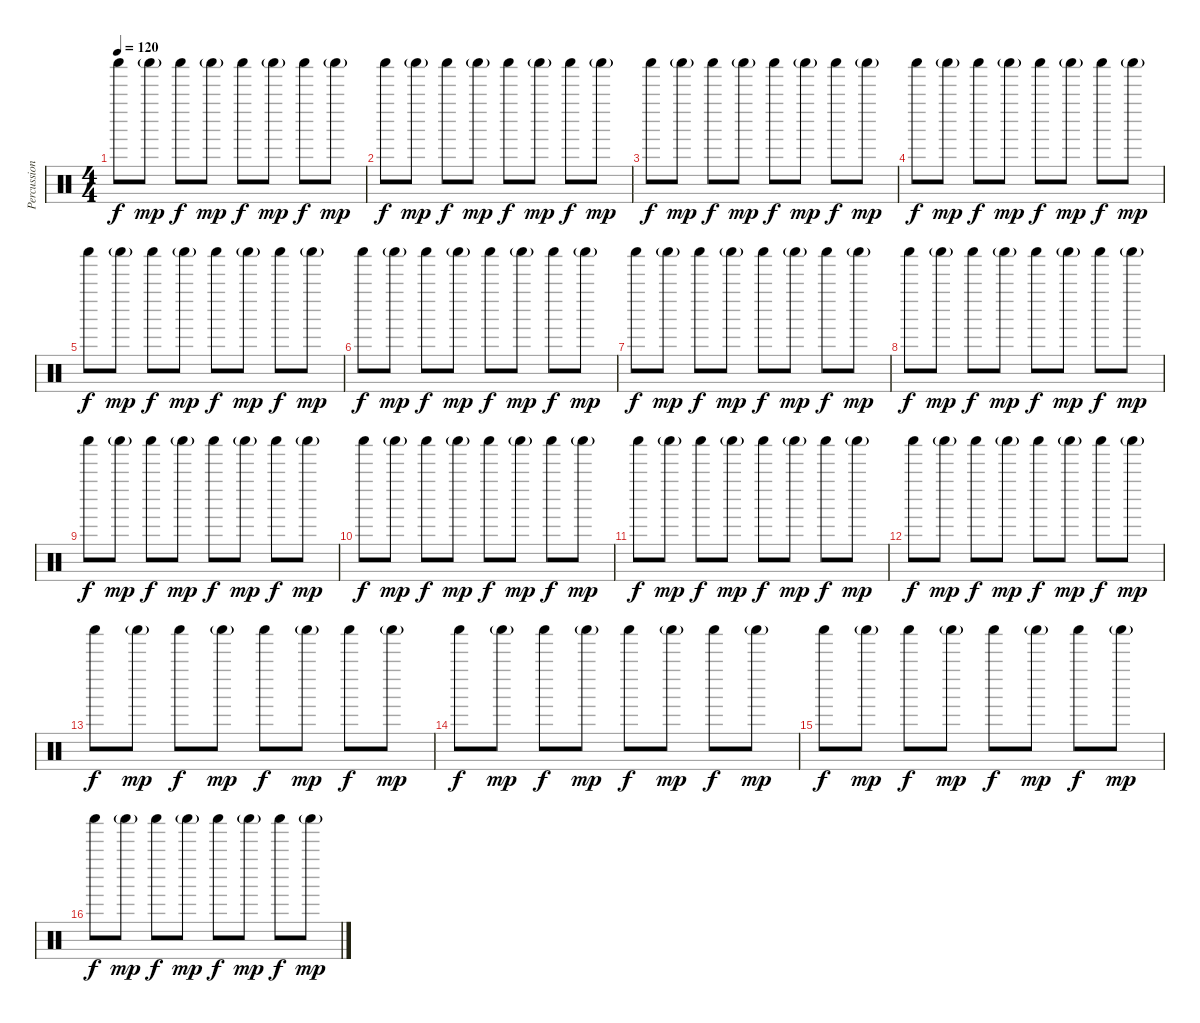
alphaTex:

\track ("Percussion" "Percussion") {instrument percussion}
\staff {score}
\articulation defaults
\ts (4 4)
\tempo 120
\clef neutral
\ks c "Shaker (hit)".8{dy f balance 16} "Shaker (hit)"{g}.8{dy mp} "Shaker (hit)".8{dy f balance 0} "Shaker (hit)"{g}.8{dy mp} "Shaker (hit)".8{dy f balance 16} "Shaker (hit)"{g}.8{dy mp} "Shaker (hit)".8{dy f balance 0} "Shaker (hit)"{g}.8{dy mp}
|
"Shaker (hit)".8{dy f balance 16} "Shaker (hit)"{g}.8{dy mp} "Shaker (hit)".8{dy f balance 0} "Shaker (hit)"{g}.8{dy mp} "Shaker (hit)".8{dy f balance 16} "Shaker (hit)"{g}.8{dy mp} "Shaker (hit)".8{dy f balance 0} "Shaker (hit)"{g}.8{dy mp} |
"Shaker (hit)".8{dy f balance 16} "Shaker (hit)"{g}.8{dy mp} "Shaker (hit)".8{dy f balance 0} "Shaker (hit)"{g}.8{dy mp} "Shaker (hit)".8{dy f balance 16} "Shaker (hit)"{g}.8{dy mp} "Shaker (hit)".8{dy f balance 0} "Shaker (hit)"{g}.8{dy mp} |
"Shaker (hit)".8{dy f balance 16} "Shaker (hit)"{g}.8{dy mp} "Shaker (hit)".8{dy f balance 0} "Shaker (hit)"{g}.8{dy mp} "Shaker (hit)".8{dy f balance 16} "Shaker (hit)"{g}.8{dy mp} "Shaker (hit)".8{dy f balance 0} "Shaker (hit)"{g}.8{dy mp} |
"Shaker (hit)".8{dy f balance 16} "Shaker (hit)"{g}.8{dy mp} "Shaker (hit)".8{dy f balance 0} "Shaker (hit)"{g}.8{dy mp} "Shaker (hit)".8{dy f balance 16} "Shaker (hit)"{g}.8{dy mp} "Shaker (hit)".8{dy f balance 0} "Shaker (hit)"{g}.8{dy mp} |
"Shaker (hit)".8{dy f balance 16} "Shaker (hit)"{g}.8{dy mp} "Shaker (hit)".8{dy f balance 0} "Shaker (hit)"{g}.8{dy mp} "Shaker (hit)".8{dy f balance 16} "Shaker (hit)"{g}.8{dy mp} "Shaker (hit)".8{dy f balance 0} "Shaker (hit)"{g}.8{dy mp} |
"Shaker (hit)".8{dy f balance 16} "Shaker (hit)"{g}.8{dy mp} "Shaker (hit)".8{dy f balance 0} "Shaker (hit)"{g}.8{dy mp} "Shaker (hit)".8{dy f balance 16} "Shaker (hit)"{g}.8{dy mp} "Shaker (hit)".8{dy f balance 0} "Shaker (hit)"{g}.8{dy mp} |
"Shaker (hit)".8{dy f balance 16} "Shaker (hit)"{g}.8{dy mp} "Shaker (hit)".8{dy f balance 0} "Shaker (hit)"{g}.8{dy mp} "Shaker (hit)".8{dy f balance 16} "Shaker (hit)"{g}.8{dy mp} "Shaker (hit)".8{dy f balance 0} "Shaker (hit)"{g}.8{dy mp} |
"Shaker (hit)".8{dy f balance 16} "Shaker (hit)"{g}.8{dy mp} "Shaker (hit)".8{dy f balance 0} "Shaker (hit)"{g}.8{dy mp} "Shaker (hit)".8{dy f balance 16} "Shaker (hit)"{g}.8{dy mp} "Shaker (hit)".8{dy f balance 0} "Shaker (hit)"{g}.8{dy mp} |
"Shaker (hit)".8{dy f balance 16} "Shaker (hit)"{g}.8{dy mp} "Shaker (hit)".8{dy f balance 0} "Shaker (hit)"{g}.8{dy mp} "Shaker (hit)".8{dy f balance 16} "Shaker (hit)"{g}.8{dy mp} "Shaker (hit)".8{dy f balance 0} "Shaker (hit)"{g}.8{dy mp} |
"Shaker (hit)".8{dy f balance 16} "Shaker (hit)"{g}.8{dy mp} "Shaker (hit)".8{dy f balance 0} "Shaker (hit)"{g}.8{dy mp} "Shaker (hit)".8{dy f balance 16} "Shaker (hit)"{g}.8{dy mp} "Shaker (hit)".8{dy f balance 0} "Shaker (hit)"{g}.8{dy mp} |
"Shaker (hit)".8{dy f balance 16} "Shaker (hit)"{g}.8{dy mp} "Shaker (hit)".8{dy f balance 0} "Shaker (hit)"{g}.8{dy mp} "Shaker (hit)".8{dy f balance 16} "Shaker (hit)"{g}.8{dy mp} "Shaker (hit)".8{dy f balance 0} "Shaker (hit)"{g}.8{dy mp} |
"Shaker (hit)".8{dy f balance 16} "Shaker (hit)"{g}.8{dy mp} "Shaker (hit)".8{dy f balance 0} "Shaker (hit)"{g}.8{dy mp} "Shaker (hit)".8{dy f balance 16} "Shaker (hit)"{g}.8{dy mp} "Shaker (hit)".8{dy f balance 0} "Shaker (hit)"{g}.8{dy mp} |
"Shaker (hit)".8{dy f balance 16} "Shaker (hit)"{g}.8{dy mp} "Shaker (hit)".8{dy f balance 0} "Shaker (hit)"{g}.8{dy mp} "Shaker (hit)".8{dy f balance 16} "Shaker (hit)"{g}.8{dy mp} "Shaker (hit)".8{dy f balance 0} "Shaker (hit)"{g}.8{dy mp} |
"Shaker (hit)".8{dy f balance 16} "Shaker (hit)"{g}.8{dy mp} "Shaker (hit)".8{dy f balance 0} "Shaker (hit)"{g}.8{dy mp} "Shaker (hit)".8{dy f balance 16} "Shaker (hit)"{g}.8{dy mp} "Shaker (hit)".8{dy f balance 0} "Shaker (hit)"{g}.8{dy mp} |
"Shaker (hit)".8{dy f balance 16} "Shaker (hit)"{g}.8{dy mp} "Shaker (hit)".8{dy f balance 0} "Shaker (hit)"{g}.8{dy mp} "Shaker (hit)".8{dy f balance 16} "Shaker (hit)"{g}.8{dy mp} "Shaker (hit)".8{dy f balance 0} "Shaker (hit)"{g}.8{dy mp}
